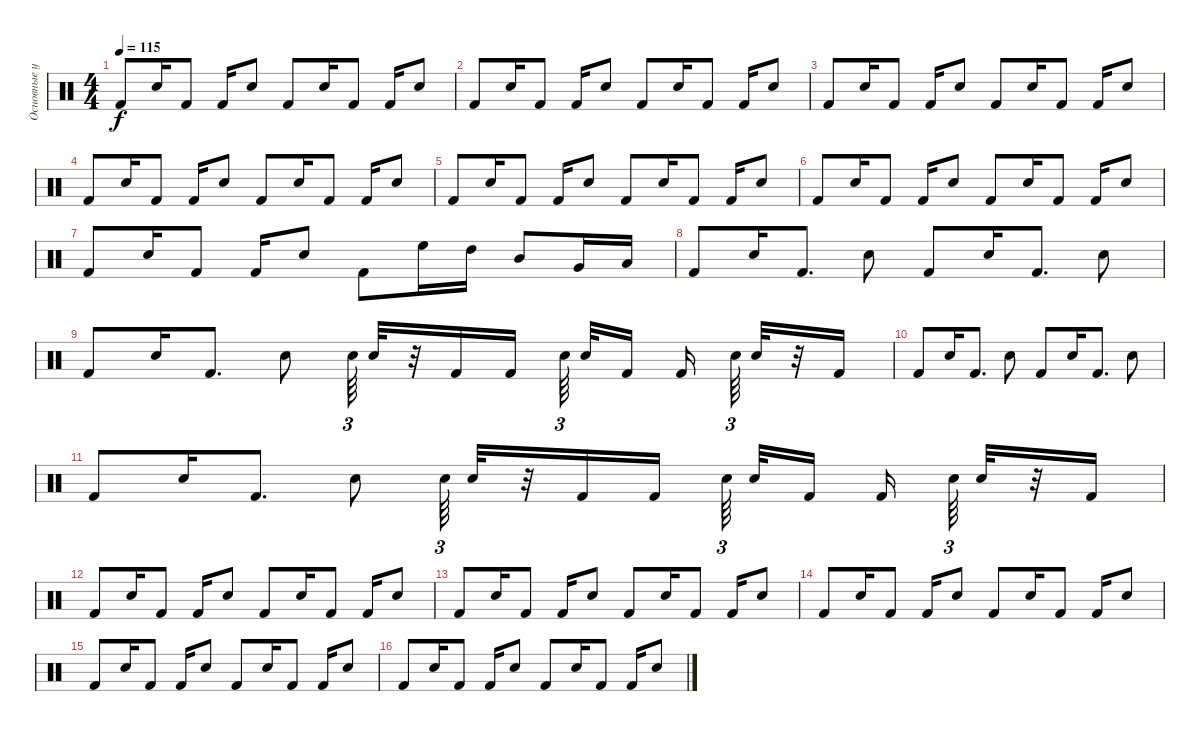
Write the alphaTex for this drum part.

\track ("Основные ударные" "Основные у") {instrument percussion}
\staff {score}
\articulation defaults
\ts (4 4)
\tempo 115
\clef neutral
\ks c "Kick (hit) 2".8{dy f} "Electric Snare (hit)".16 "Kick (hit) 2".8 "Kick (hit) 2".16 "Electric Snare (hit)".8 "Kick (hit) 2".8 "Electric Snare (hit)".16 "Kick (hit) 2".8 "Kick (hit) 2".16 "Electric Snare (hit)".8
|
"Kick (hit) 2".8 "Electric Snare (hit)".16 "Kick (hit) 2".8 "Kick (hit) 2".16 "Electric Snare (hit)".8 "Kick (hit) 2".8 "Electric Snare (hit)".16 "Kick (hit) 2".8 "Kick (hit) 2".16 "Electric Snare (hit)".8 |
"Kick (hit) 2".8 "Electric Snare (hit)".16 "Kick (hit) 2".8 "Kick (hit) 2".16 "Electric Snare (hit)".8 "Kick (hit) 2".8 "Electric Snare (hit)".16 "Kick (hit) 2".8 "Kick (hit) 2".16 "Electric Snare (hit)".8 |
"Kick (hit) 2".8 "Electric Snare (hit)".16 "Kick (hit) 2".8 "Kick (hit) 2".16 "Electric Snare (hit)".8 "Kick (hit) 2".8 "Electric Snare (hit)".16 "Kick (hit) 2".8 "Kick (hit) 2".16 "Electric Snare (hit)".8 |
"Kick (hit) 2".8 "Electric Snare (hit)".16 "Kick (hit) 2".8 "Kick (hit) 2".16 "Electric Snare (hit)".8 "Kick (hit) 2".8 "Electric Snare (hit)".16 "Kick (hit) 2".8 "Kick (hit) 2".16 "Electric Snare (hit)".8 |
"Kick (hit) 2".8 "Electric Snare (hit)".16 "Kick (hit) 2".8 "Kick (hit) 2".16 "Electric Snare (hit)".8 "Kick (hit) 2".8 "Electric Snare (hit)".16 "Kick (hit) 2".8 "Kick (hit) 2".16 "Electric Snare (hit)".8 |
"Kick (hit) 2".8 "Electric Snare (hit)".16 "Kick (hit) 2".8 "Kick (hit) 2".16 "Electric Snare (hit)".8 "Kick (hit) 2".8 "High Floor Tom (hit)".16 "High Tom (hit)".16 "Mid Tom (hit)".8 "Very Low Tom (hit)".16 "Low Floor Tom (hit)".16 |
"Kick (hit) 2".8 "Electric Snare (hit)".16 "Kick (hit) 2".8{d} "Electric Snare (hit)".8 "Kick (hit) 2".8 "Electric Snare (hit)".16 "Kick (hit) 2".8{d} "Electric Snare (hit)".8 |
"Kick (hit) 2".8 "Electric Snare (hit)".16 "Kick (hit) 2".8{d} "Electric Snare (hit)".8 "Electric Snare (hit)".64{tu (3 2)} "Electric Snare (hit)".32 r.32 "Kick (hit) 2".16 "Kick (hit) 2".16{beam splitsecondary} "Electric Snare (hit)".64{tu (3 2) beam splitsecondary} "Electric Snare (hit)".32 "Kick (hit) 2".16 "Kick (hit) 2".16{beam splitsecondary} "Electric Snare (hit)".64{tu (3 2)} "Electric Snare (hit)".32 r.32 "Kick (hit) 2".16 |
"Kick (hit) 2".8 "Electric Snare (hit)".16 "Kick (hit) 2".8{d} "Electric Snare (hit)".8 "Kick (hit) 2".8 "Electric Snare (hit)".16 "Kick (hit) 2".8{d} "Electric Snare (hit)".8 |
"Kick (hit) 2".8 "Electric Snare (hit)".16 "Kick (hit) 2".8{d} "Electric Snare (hit)".8 "Electric Snare (hit)".64{tu (3 2)} "Electric Snare (hit)".32 r.32 "Kick (hit) 2".16 "Kick (hit) 2".16{beam splitsecondary} "Electric Snare (hit)".64{tu (3 2) beam splitsecondary} "Electric Snare (hit)".32 "Kick (hit) 2".16 "Kick (hit) 2".16{beam splitsecondary} "Electric Snare (hit)".64{tu (3 2)} "Electric Snare (hit)".32 r.32 "Kick (hit) 2".16 |
"Kick (hit) 2".8 "Electric Snare (hit)".16 "Kick (hit) 2".8 "Kick (hit) 2".16 "Electric Snare (hit)".8 "Kick (hit) 2".8 "Electric Snare (hit)".16 "Kick (hit) 2".8 "Kick (hit) 2".16 "Electric Snare (hit)".8 |
"Kick (hit) 2".8 "Electric Snare (hit)".16 "Kick (hit) 2".8 "Kick (hit) 2".16 "Electric Snare (hit)".8 "Kick (hit) 2".8 "Electric Snare (hit)".16 "Kick (hit) 2".8 "Kick (hit) 2".16 "Electric Snare (hit)".8 |
"Kick (hit) 2".8 "Electric Snare (hit)".16 "Kick (hit) 2".8 "Kick (hit) 2".16 "Electric Snare (hit)".8 "Kick (hit) 2".8 "Electric Snare (hit)".16 "Kick (hit) 2".8 "Kick (hit) 2".16 "Electric Snare (hit)".8 |
"Kick (hit) 2".8 "Electric Snare (hit)".16 "Kick (hit) 2".8 "Kick (hit) 2".16 "Electric Snare (hit)".8 "Kick (hit) 2".8 "Electric Snare (hit)".16 "Kick (hit) 2".8 "Kick (hit) 2".16 "Electric Snare (hit)".8 |
"Kick (hit) 2".8 "Electric Snare (hit)".16 "Kick (hit) 2".8 "Kick (hit) 2".16 "Electric Snare (hit)".8 "Kick (hit) 2".8 "Electric Snare (hit)".16 "Kick (hit) 2".8 "Kick (hit) 2".16 "Electric Snare (hit)".8
